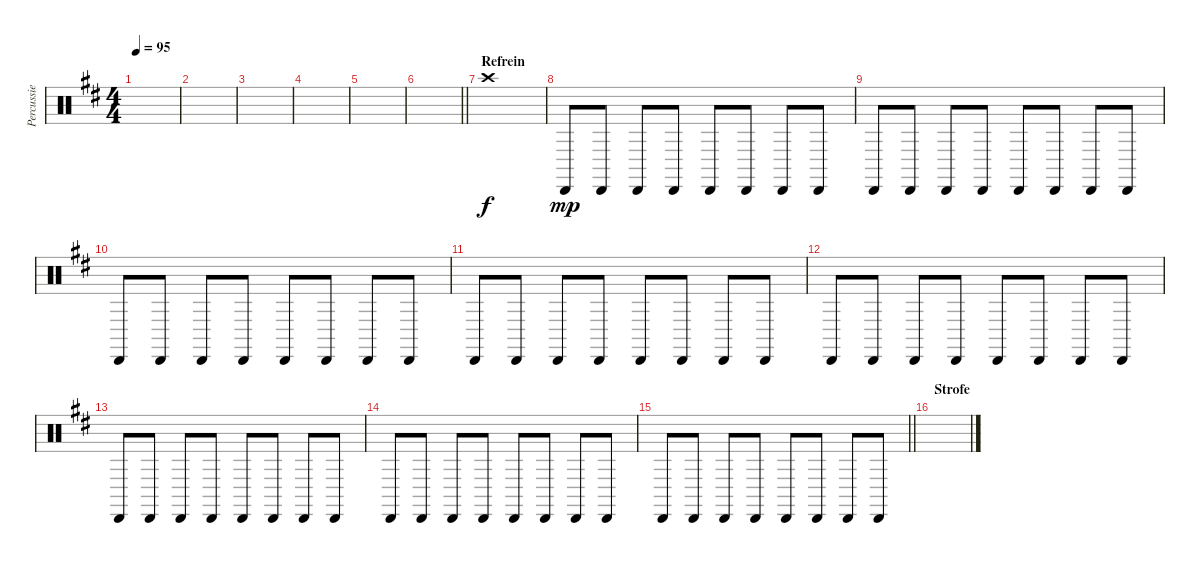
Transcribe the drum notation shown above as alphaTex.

\track ("Percussie" "Percussie") {instrument percussion}
\staff {score}
\articulation defaults
\ts (4 4)
\tempo 95
\clef neutral
\ks d
|
|
|
|
|
\barLineRight lightlight
|
\section ("" "Refrein")
"Crash high (hit)".1 |
"Cabasa (hit)".8{dy mp} "Cabasa (hit)".8 "Cabasa (hit)".8 "Cabasa (hit)".8 "Cabasa (hit)".8 "Cabasa (hit)".8 "Cabasa (hit)".8 "Cabasa (hit)".8 |
"Cabasa (hit)".8 "Cabasa (hit)".8 "Cabasa (hit)".8 "Cabasa (hit)".8 "Cabasa (hit)".8 "Cabasa (hit)".8 "Cabasa (hit)".8 "Cabasa (hit)".8 |
"Cabasa (hit)".8 "Cabasa (hit)".8 "Cabasa (hit)".8 "Cabasa (hit)".8 "Cabasa (hit)".8 "Cabasa (hit)".8 "Cabasa (hit)".8 "Cabasa (hit)".8 |
"Cabasa (hit)".8 "Cabasa (hit)".8 "Cabasa (hit)".8 "Cabasa (hit)".8 "Cabasa (hit)".8 "Cabasa (hit)".8 "Cabasa (hit)".8 "Cabasa (hit)".8 |
"Cabasa (hit)".8 "Cabasa (hit)".8 "Cabasa (hit)".8 "Cabasa (hit)".8 "Cabasa (hit)".8 "Cabasa (hit)".8 "Cabasa (hit)".8 "Cabasa (hit)".8 |
"Cabasa (hit)".8 "Cabasa (hit)".8 "Cabasa (hit)".8 "Cabasa (hit)".8 "Cabasa (hit)".8 "Cabasa (hit)".8 "Cabasa (hit)".8 "Cabasa (hit)".8 |
"Cabasa (hit)".8 "Cabasa (hit)".8 "Cabasa (hit)".8 "Cabasa (hit)".8 "Cabasa (hit)".8 "Cabasa (hit)".8 "Cabasa (hit)".8 "Cabasa (hit)".8 |
\barLineRight lightlight "Cabasa (hit)".8 "Cabasa (hit)".8 "Cabasa (hit)".8 "Cabasa (hit)".8 "Cabasa (hit)".8 "Cabasa (hit)".8 "Cabasa (hit)".8 "Cabasa (hit)".8
|
\section ("" "Strofe")
